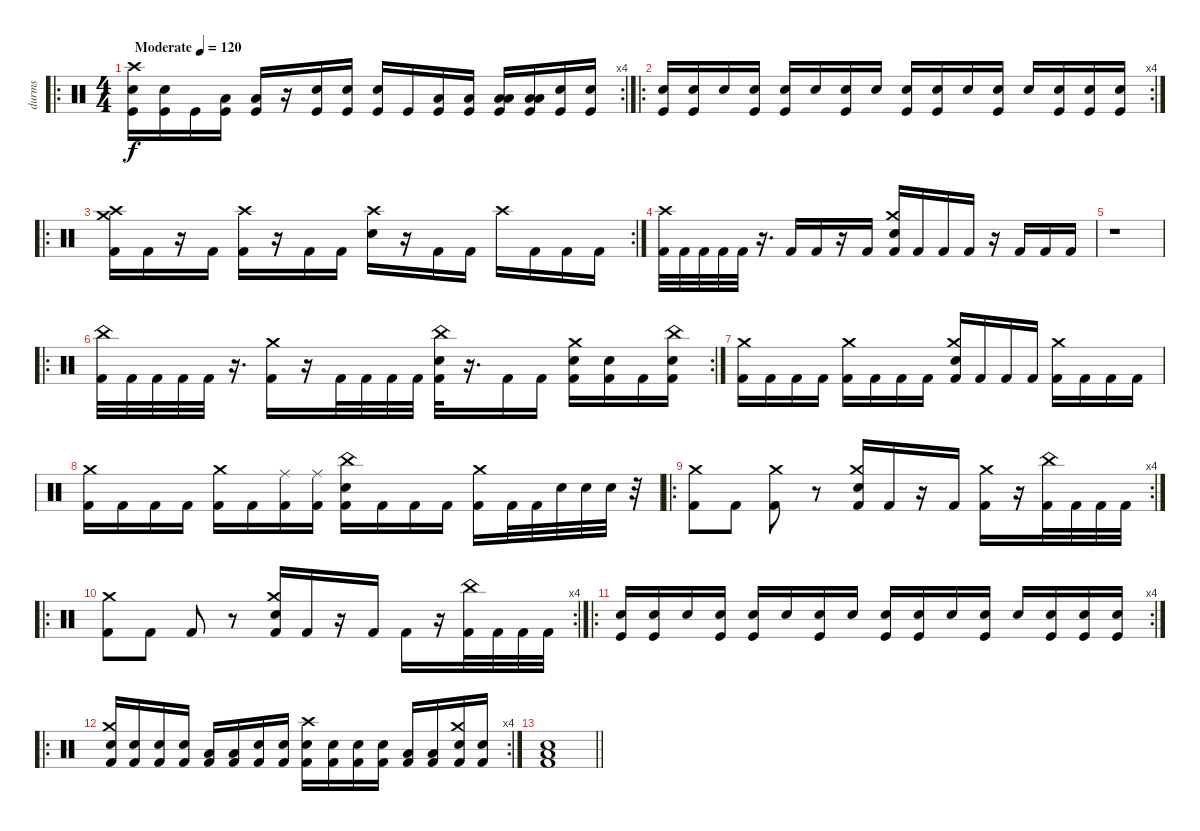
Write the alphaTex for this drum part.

\track ("durms" "durms") {instrument percussion}
\staff {score}
\articulation defaults
\ro
\rc 4
\ts (4 4)
\tempo (120 "Moderate")
\clef neutral
\ks c
("Crash high (hit)" "Snare (hit) 2" "Kick (hit)").16{dy f} ("Snare (hit) 2" "Kick (hit)").16 "Kick (hit)".16 ("Low Floor Tom (hit)" "Kick (hit)").16 ("Low Floor Tom (hit)" "Kick (hit)").16 r.16 ("Snare (hit) 2" "Kick (hit)").16 ("Snare (hit) 2" "Kick (hit)").16 ("Snare (hit) 2" "Kick (hit)").16 "Kick (hit)".16 ("Low Floor Tom (hit)" "Kick (hit)").16 ("Low Floor Tom (hit)" "Kick (hit)").16 ("Low Tom (hit)" "Low Floor Tom (hit)" "Kick (hit)").16 ("Low Tom (hit)" "Low Floor Tom (hit)" "Kick (hit)").16 ("Snare (hit) 2" "Kick (hit)").16 ("Snare (hit) 2" "Kick (hit)").16 |
\ro
\rc 4
("Snare (hit) 2" "Kick (hit)").16 ("Snare (hit) 2" "Kick (hit)").16 "Snare (hit) 2".16 ("Snare (hit) 2" "Kick (hit)").16 ("Snare (hit) 2" "Kick (hit)").16 "Snare (hit) 2".16 ("Snare (hit) 2" "Kick (hit)").16 "Snare (hit) 2".16 ("Snare (hit) 2" "Kick (hit)").16 ("Snare (hit) 2" "Kick (hit)").16 "Snare (hit) 2".16 ("Snare (hit) 2" "Kick (hit)").16 "Snare (hit) 2".16 ("Snare (hit) 2" "Kick (hit)").16 ("Snare (hit) 2" "Kick (hit)").16 ("Snare (hit) 2" "Kick (hit)").16 |
\ro
\rc 2
("Crash medium (hit)" "Crash high (hit)" "Kick (hit) 2").16 "Kick (hit) 2".16 r.16 "Kick (hit) 2".16 ("Crash high (hit)" "Kick (hit) 2").16 r.16 "Kick (hit) 2".16 "Kick (hit) 2".16 ("Crash high (hit)" "Snare (hit) 2").16 r.16 "Kick (hit) 2".16 "Kick (hit) 2".16 "Crash high (hit)".16 "Kick (hit) 2".16 "Kick (hit) 2".16 "Kick (hit) 2".16 |
("Crash high (hit)" "Kick (hit) 2").32 "Kick (hit) 2".32 "Kick (hit) 2".32 "Kick (hit) 2".32 "Kick (hit) 2".32 r.16{d} "Kick (hit) 2".16 "Kick (hit) 2".16 r.16 "Kick (hit) 2".16 ("Crash medium (hit)" "Snare (hit) 2" "Kick (hit) 2").16 "Kick (hit) 2".16 "Kick (hit) 2".16 "Kick (hit) 2".16 r.16 "Kick (hit) 2".16 "Kick (hit) 2".16 "Kick (hit) 2".16 |
r.1 |
\ro
\rc 2
("China (hit)" "Kick (hit) 2").32 "Kick (hit) 2".32 "Kick (hit) 2".32 "Kick (hit) 2".32 "Kick (hit) 2".32 r.16{d} ("Crash medium (hit)" "Kick (hit) 2").16 r.16 "Kick (hit) 2".32 "Kick (hit) 2".32 "Kick (hit) 2".32 "Kick (hit) 2".32 ("China (hit)" "Snare (hit) 2" "Kick (hit) 2").32 r.16{d} "Kick (hit) 2".16 "Kick (hit) 2".16 ("Crash medium (hit)" "Snare (hit) 2" "Kick (hit) 2").16 ("Snare (hit) 2" "Kick (hit) 2").16 "Kick (hit) 2".16 ("China (hit)" "Snare (hit) 2" "Kick (hit) 2").16 |
("Crash medium (hit)" "Kick (hit) 2").16 "Kick (hit) 2".16 "Kick (hit) 2".16 "Kick (hit) 2".16 ("Crash medium (hit)" "Kick (hit) 2").16 "Kick (hit) 2".16 "Kick (hit) 2".16 "Kick (hit) 2".16 ("Crash medium (hit)" "Snare (hit) 2" "Kick (hit) 2").16 "Kick (hit) 2".16 "Kick (hit) 2".16 "Kick (hit) 2".16 ("Crash medium (hit)" "Kick (hit) 2").16 "Kick (hit) 2".16 "Kick (hit) 2".16 "Kick (hit) 2".16 |
("Crash medium (hit)" "Kick (hit) 2").16 "Kick (hit) 2".16 "Kick (hit) 2".16 "Kick (hit) 2".16 ("Crash medium (hit)" "Kick (hit) 2").16 "Kick (hit) 2".16 ("Ride (middle)" "Kick (hit) 2").16 ("Ride (middle)" "Kick (hit) 2").16 ("China (hit)" "Snare (hit) 2" "Kick (hit) 2").16 "Kick (hit) 2".16 "Kick (hit) 2".16 "Kick (hit) 2".16 ("Crash medium (hit)" "Kick (hit) 2").16 "Kick (hit) 2".32 "Kick (hit) 2".32 "Snare (hit) 2".32 "Snare (hit) 2".32 "Snare (hit) 2".32 r.32 |
\ro
\rc 4
("Crash medium (hit)" "Kick (hit) 2").8 "Kick (hit) 2".8 ("Crash medium (hit)" "Kick (hit) 2").8 r.8 ("Crash medium (hit)" "Snare (hit) 2" "Kick (hit) 2").16 "Kick (hit) 2".16 r.16 "Kick (hit) 2".16 ("Crash medium (hit)" "Kick (hit) 2").16 r.16 ("China (hit)" "Kick (hit) 2").32 "Kick (hit) 2".32 "Kick (hit) 2".32 "Kick (hit) 2".32 |
\ro
\rc 4
("Crash medium (hit)" "Kick (hit) 2").8 "Kick (hit) 2".8 "Kick (hit) 2".8 r.8 ("Crash medium (hit)" "Snare (hit) 2" "Kick (hit) 2").16 "Kick (hit) 2".16 r.16 "Kick (hit) 2".16 "Kick (hit) 2".16 r.16 ("China (hit)" "Kick (hit) 2").32 "Kick (hit) 2".32 "Kick (hit) 2".32 "Kick (hit) 2".32 |
\ro
\rc 4
("Snare (hit) 2" "Kick (hit)").16 ("Snare (hit) 2" "Kick (hit)").16 "Snare (hit) 2".16 ("Snare (hit) 2" "Kick (hit)").16 ("Snare (hit) 2" "Kick (hit)").16 "Snare (hit) 2".16 ("Snare (hit) 2" "Kick (hit)").16 "Snare (hit) 2".16 ("Snare (hit) 2" "Kick (hit)").16 ("Snare (hit) 2" "Kick (hit)").16 "Snare (hit) 2".16 ("Snare (hit) 2" "Kick (hit)").16 "Snare (hit) 2".16 ("Snare (hit) 2" "Kick (hit)").16 ("Snare (hit) 2" "Kick (hit)").16 ("Snare (hit) 2" "Kick (hit)").16 |
\ro
\rc 4
("Crash medium (hit)" "Snare (hit) 2" "Kick (hit) 2").16 ("Snare (hit) 2" "Kick (hit) 2").16 ("Snare (hit) 2" "Kick (hit) 2").16 ("Snare (hit) 2" "Kick (hit) 2").16 ("Low Tom (hit)" "Kick (hit) 2").16 ("Low Tom (hit)" "Kick (hit) 2").16 ("Snare (hit) 2" "Kick (hit) 2").16 ("Snare (hit) 2" "Kick (hit) 2").16 ("Crash high (hit)" "Snare (hit) 2" "Kick (hit) 2").16 ("Snare (hit) 2" "Kick (hit) 2").16 ("Snare (hit) 2" "Kick (hit) 2").16 ("Snare (hit) 2" "Kick (hit) 2").16 ("Low Tom (hit)" "Kick (hit) 2").16 ("Low Tom (hit)" "Kick (hit) 2").16 ("Crash medium (hit)" "Snare (hit) 2" "Kick (hit) 2").16 ("Snare (hit) 2" "Kick (hit) 2").16 |
\barLineRight lightlight
("Low Tom (hit)" "Snare (hit) 2" "Kick (hit) 2").1
